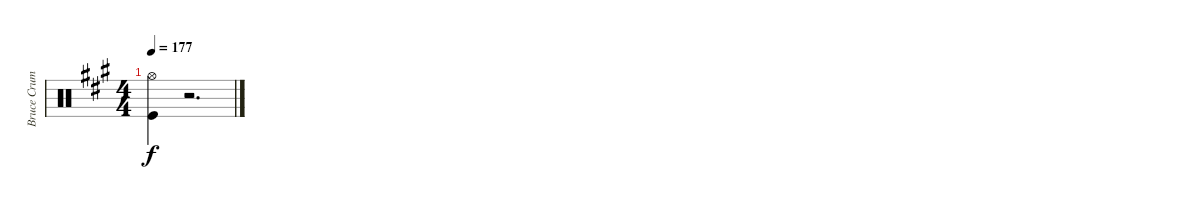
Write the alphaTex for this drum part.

\track ("Bruce Crump Drums" "Bruce Crum") {instrument percussion}
\staff {score}
\articulation defaults
\ts (4 4)
\tempo 177
\clef neutral
\ks a
("Hi-Hat (open)" "Kick (hit)").4{dy f} r.2{d}
